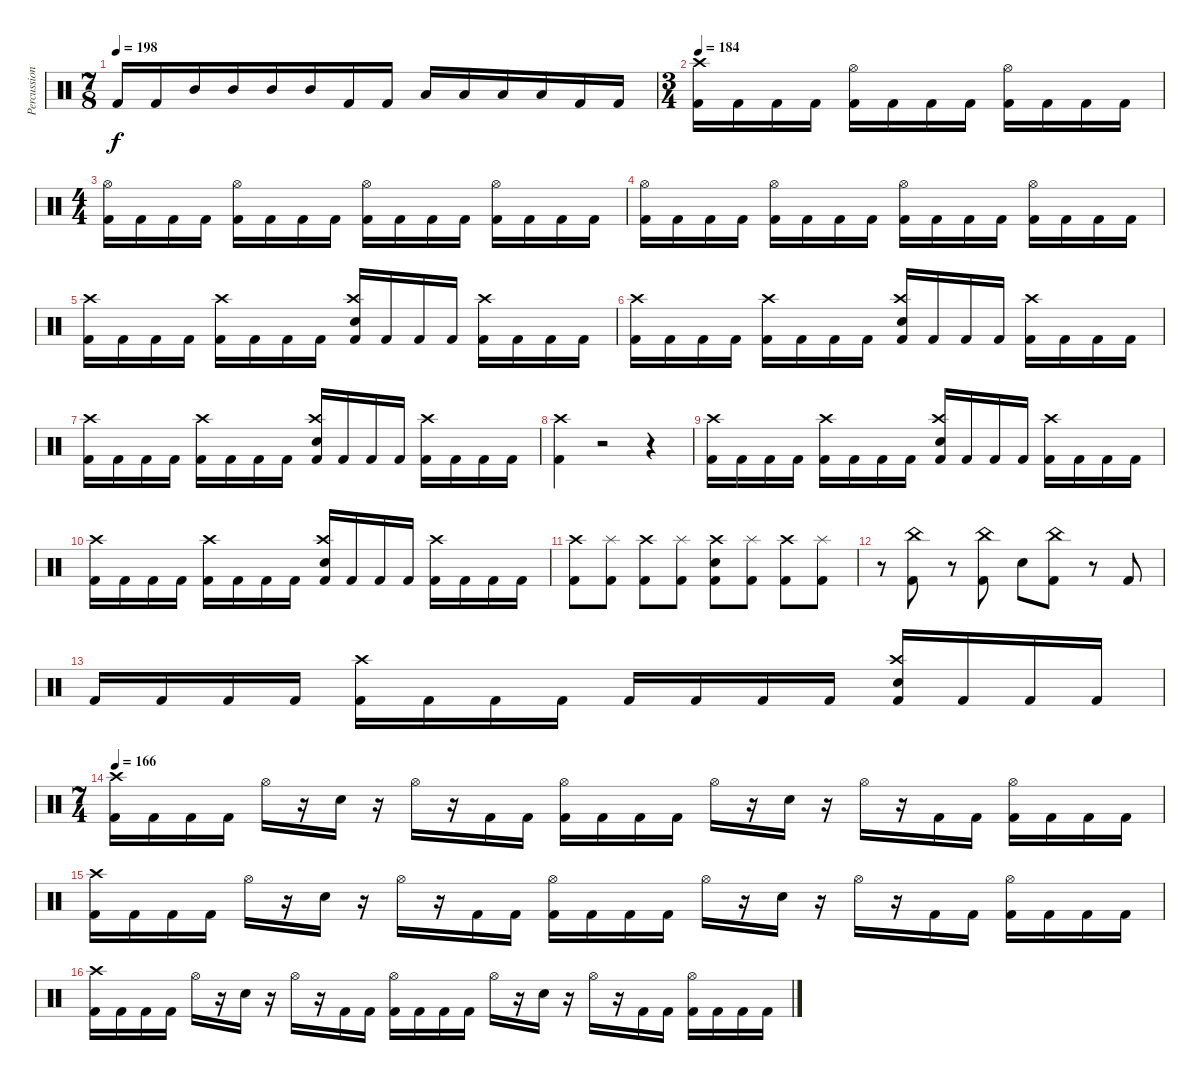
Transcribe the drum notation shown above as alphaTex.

\track ("Percussion" "Percussion") {instrument percussion}
\staff {score}
\articulation defaults
\ts (7 8)
\tempo 198
\clef neutral
\ks c "Kick (hit) 2".16{dy f} "Kick (hit) 2".16 "Mid Tom (hit)".16 "Mid Tom (hit)".16 "Mid Tom (hit)".16 "Mid Tom (hit)".16 "Kick (hit) 2".16 "Kick (hit) 2".16 "Low Tom (hit)".16 "Low Tom (hit)".16 "Low Tom (hit)".16 "Low Tom (hit)".16 "Kick (hit) 2".16 "Kick (hit) 2".16{volume 0}
|
\ts (3 4)
\tempo 184
("Crash high (hit)" "Kick (hit) 2").16{volume 14} "Kick (hit) 2".16 "Kick (hit) 2".16 "Kick (hit) 2".16 ("Hi-Hat (open)" "Kick (hit) 2").16 "Kick (hit) 2".16 "Kick (hit) 2".16 "Kick (hit) 2".16 ("Hi-Hat (open)" "Kick (hit) 2").16 "Kick (hit) 2".16 "Kick (hit) 2".16 "Kick (hit) 2".16 |
\ts (4 4)
("Hi-Hat (open)" "Kick (hit) 2").16 "Kick (hit) 2".16 "Kick (hit) 2".16 "Kick (hit) 2".16 ("Hi-Hat (open)" "Kick (hit) 2").16 "Kick (hit) 2".16 "Kick (hit) 2".16 "Kick (hit) 2".16 ("Hi-Hat (open)" "Kick (hit) 2").16 "Kick (hit) 2".16 "Kick (hit) 2".16 "Kick (hit) 2".16 ("Hi-Hat (open)" "Kick (hit) 2").16 "Kick (hit) 2".16 "Kick (hit) 2".16 "Kick (hit) 2".16 |
("Hi-Hat (open)" "Kick (hit) 2").16 "Kick (hit) 2".16 "Kick (hit) 2".16 "Kick (hit) 2".16 ("Hi-Hat (open)" "Kick (hit) 2").16 "Kick (hit) 2".16 "Kick (hit) 2".16 "Kick (hit) 2".16 ("Hi-Hat (open)" "Kick (hit) 2").16 "Kick (hit) 2".16 "Kick (hit) 2".16 "Kick (hit) 2".16 ("Hi-Hat (open)" "Kick (hit) 2").16 "Kick (hit) 2".16 "Kick (hit) 2".16 "Kick (hit) 2".16 |
("Crash high (hit)" "Kick (hit) 2").16 "Kick (hit) 2".16 "Kick (hit) 2".16 "Kick (hit) 2".16 ("Crash high (hit)" "Kick (hit) 2").16 "Kick (hit) 2".16 "Kick (hit) 2".16 "Kick (hit) 2".16 ("Crash high (hit)" "Electric Snare (hit)" "Kick (hit) 2").16 "Kick (hit) 2".16 "Kick (hit) 2".16 "Kick (hit) 2".16 ("Crash high (hit)" "Kick (hit) 2").16 "Kick (hit) 2".16 "Kick (hit) 2".16 "Kick (hit) 2".16 |
("Crash high (hit)" "Kick (hit) 2").16 "Kick (hit) 2".16 "Kick (hit) 2".16 "Kick (hit) 2".16 ("Crash high (hit)" "Kick (hit) 2").16 "Kick (hit) 2".16 "Kick (hit) 2".16 "Kick (hit) 2".16 ("Crash high (hit)" "Electric Snare (hit)" "Kick (hit) 2").16 "Kick (hit) 2".16 "Kick (hit) 2".16 "Kick (hit) 2".16 ("Crash high (hit)" "Kick (hit) 2").16 "Kick (hit) 2".16 "Kick (hit) 2".16 "Kick (hit) 2".16 |
("Crash high (hit)" "Kick (hit) 2").16 "Kick (hit) 2".16 "Kick (hit) 2".16 "Kick (hit) 2".16 ("Crash high (hit)" "Kick (hit) 2").16 "Kick (hit) 2".16 "Kick (hit) 2".16 "Kick (hit) 2".16 ("Crash high (hit)" "Electric Snare (hit)" "Kick (hit) 2").16 "Kick (hit) 2".16 "Kick (hit) 2".16 "Kick (hit) 2".16 ("Crash high (hit)" "Kick (hit) 2").16 "Kick (hit) 2".16 "Kick (hit) 2".16 "Kick (hit) 2".16 |
("Crash high (hit)" "Kick (hit) 2").4 r.2 r.4 |
("Crash high (hit)" "Kick (hit) 2").16 "Kick (hit) 2".16 "Kick (hit) 2".16 "Kick (hit) 2".16 ("Crash high (hit)" "Kick (hit) 2").16 "Kick (hit) 2".16 "Kick (hit) 2".16 "Kick (hit) 2".16 ("Crash high (hit)" "Electric Snare (hit)" "Kick (hit) 2").16 "Kick (hit) 2".16 "Kick (hit) 2".16 "Kick (hit) 2".16 ("Crash high (hit)" "Kick (hit) 2").16 "Kick (hit) 2".16 "Kick (hit) 2".16 "Kick (hit) 2".16 |
("Crash high (hit)" "Kick (hit) 2").16 "Kick (hit) 2".16 "Kick (hit) 2".16 "Kick (hit) 2".16 ("Crash high (hit)" "Kick (hit) 2").16 "Kick (hit) 2".16 "Kick (hit) 2".16 "Kick (hit) 2".16 ("Crash high (hit)" "Electric Snare (hit)" "Kick (hit) 2").16 "Kick (hit) 2".16 "Kick (hit) 2".16 "Kick (hit) 2".16 ("Crash high (hit)" "Kick (hit) 2").16 "Kick (hit) 2".16 "Kick (hit) 2".16 "Kick (hit) 2".16 |
("Crash high (hit)" "Kick (hit) 2").8 ("Splash (hit)" "Kick (hit) 2").8 ("Crash high (hit)" "Kick (hit) 2").8 ("Splash (hit)" "Kick (hit) 2").8 ("Crash high (hit)" "Electric Snare (hit)" "Kick (hit) 2").8 ("Splash (hit)" "Kick (hit) 2").8 ("Crash high (hit)" "Kick (hit) 2").8 ("Splash (hit)" "Kick (hit) 2").8 |
r.8 ("China (hit)" "Kick (hit) 2").8 r.8 ("China (hit)" "Kick (hit) 2").8 "Electric Snare (hit)".8 ("China (hit)" "Kick (hit) 2").8 r.8 "Kick (hit) 2".8 |
"Kick (hit) 2".16 "Kick (hit) 2".16 "Kick (hit) 2".16 "Kick (hit) 2".16 ("Crash high (hit)" "Kick (hit) 2").16 "Kick (hit) 2".16 "Kick (hit) 2".16 "Kick (hit) 2".16 "Kick (hit) 2".16 "Kick (hit) 2".16 "Kick (hit) 2".16 "Kick (hit) 2".16 ("Crash high (hit)" "Electric Snare (hit)" "Kick (hit) 2").16 "Kick (hit) 2".16 "Kick (hit) 2".16 "Kick (hit) 2".16 |
\ts (7 4)
\tempo 166
("Crash high (hit)" "Kick (hit) 2").16 "Kick (hit) 2".16 "Kick (hit) 2".16 "Kick (hit) 2".16 "Hi-Hat (open)".16 r.16 "Electric Snare (hit)".16 r.16 "Hi-Hat (open)".16 r.16 "Kick (hit) 2".16 "Kick (hit) 2".16 ("Hi-Hat (open)" "Kick (hit) 2").16 "Kick (hit) 2".16 "Kick (hit) 2".16 "Kick (hit) 2".16 "Hi-Hat (open)".16 r.16 "Electric Snare (hit)".16 r.16 "Hi-Hat (open)".16 r.16 "Kick (hit) 2".16 "Kick (hit) 2".16 ("Hi-Hat (open)" "Kick (hit) 2").16 "Kick (hit) 2".16 "Kick (hit) 2".16 "Kick (hit) 2".16 |
("Crash high (hit)" "Kick (hit) 2").16 "Kick (hit) 2".16 "Kick (hit) 2".16 "Kick (hit) 2".16 "Hi-Hat (open)".16 r.16 "Electric Snare (hit)".16 r.16 "Hi-Hat (open)".16 r.16 "Kick (hit) 2".16 "Kick (hit) 2".16 ("Hi-Hat (open)" "Kick (hit) 2").16 "Kick (hit) 2".16 "Kick (hit) 2".16 "Kick (hit) 2".16 "Hi-Hat (open)".16 r.16 "Electric Snare (hit)".16 r.16 "Hi-Hat (open)".16 r.16 "Kick (hit) 2".16 "Kick (hit) 2".16 ("Hi-Hat (open)" "Kick (hit) 2").16 "Kick (hit) 2".16 "Kick (hit) 2".16 "Kick (hit) 2".16 |
("Crash high (hit)" "Kick (hit) 2").16 "Kick (hit) 2".16 "Kick (hit) 2".16 "Kick (hit) 2".16 "Hi-Hat (open)".16 r.16 "Electric Snare (hit)".16 r.16 "Hi-Hat (open)".16 r.16 "Kick (hit) 2".16 "Kick (hit) 2".16 ("Hi-Hat (open)" "Kick (hit) 2").16 "Kick (hit) 2".16 "Kick (hit) 2".16 "Kick (hit) 2".16 "Hi-Hat (open)".16 r.16 "Electric Snare (hit)".16 r.16 "Hi-Hat (open)".16 r.16 "Kick (hit) 2".16 "Kick (hit) 2".16 ("Hi-Hat (open)" "Kick (hit) 2").16 "Kick (hit) 2".16 "Kick (hit) 2".16 "Kick (hit) 2".16
